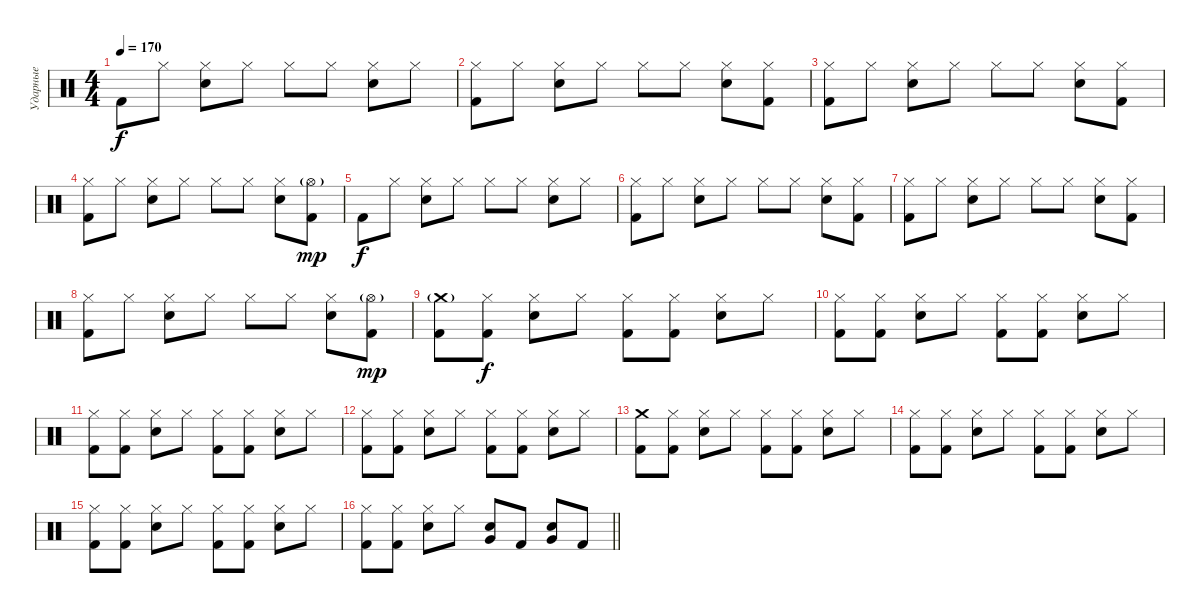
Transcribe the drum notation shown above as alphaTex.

\track ("Ударные" "Ударные") {instrument percussion}
\staff {score}
\articulation defaults
\ts (4 4)
\tempo 170
\clef neutral
\ks c "Kick (hit) 2".8{dy f} "Hi-Hat (closed)".8
("Hi-Hat (closed)" "Electric Snare (hit)").8 "Hi-Hat (closed)".8 "Hi-Hat (closed)".8 "Hi-Hat (closed)".8 ("Hi-Hat (closed)" "Electric Snare (hit)").8 "Hi-Hat (closed)".8 |
("Hi-Hat (closed)" "Kick (hit) 2").8 "Hi-Hat (closed)".8 ("Hi-Hat (closed)" "Electric Snare (hit)").8 "Hi-Hat (closed)".8 "Hi-Hat (closed)".8 "Hi-Hat (closed)".8 ("Hi-Hat (closed)" "Electric Snare (hit)").8 ("Hi-Hat (closed)" "Kick (hit) 2").8 |
("Hi-Hat (closed)" "Kick (hit) 2").8 "Hi-Hat (closed)".8 ("Hi-Hat (closed)" "Electric Snare (hit)").8 "Hi-Hat (closed)".8 "Hi-Hat (closed)".8 "Hi-Hat (closed)".8 ("Hi-Hat (closed)" "Electric Snare (hit)").8 ("Hi-Hat (closed)" "Kick (hit) 2").8 |
("Hi-Hat (closed)" "Kick (hit) 2").8 "Hi-Hat (closed)".8 ("Hi-Hat (closed)" "Electric Snare (hit)").8 "Hi-Hat (closed)".8 "Hi-Hat (closed)".8 "Hi-Hat (closed)".8 ("Hi-Hat (closed)" "Electric Snare (hit)").8 ("Hi-Hat (open)"{g} "Kick (hit) 2").8{dy mp} |
"Kick (hit) 2".8{dy f} "Hi-Hat (closed)".8 ("Hi-Hat (closed)" "Electric Snare (hit)").8 "Hi-Hat (closed)".8 "Hi-Hat (closed)".8 "Hi-Hat (closed)".8 ("Hi-Hat (closed)" "Electric Snare (hit)").8 "Hi-Hat (closed)".8 |
("Hi-Hat (closed)" "Kick (hit) 2").8 "Hi-Hat (closed)".8 ("Hi-Hat (closed)" "Electric Snare (hit)").8 "Hi-Hat (closed)".8 "Hi-Hat (closed)".8 "Hi-Hat (closed)".8 ("Hi-Hat (closed)" "Electric Snare (hit)").8 ("Hi-Hat (closed)" "Kick (hit) 2").8 |
("Hi-Hat (closed)" "Kick (hit) 2").8 "Hi-Hat (closed)".8 ("Hi-Hat (closed)" "Electric Snare (hit)").8 "Hi-Hat (closed)".8 "Hi-Hat (closed)".8 "Hi-Hat (closed)".8 ("Hi-Hat (closed)" "Electric Snare (hit)").8 ("Hi-Hat (closed)" "Kick (hit) 2").8 |
("Hi-Hat (closed)" "Kick (hit) 2").8 "Hi-Hat (closed)".8 ("Hi-Hat (closed)" "Electric Snare (hit)").8 "Hi-Hat (closed)".8 "Hi-Hat (closed)".8 "Hi-Hat (closed)".8 ("Hi-Hat (closed)" "Electric Snare (hit)").8 ("Hi-Hat (open)"{g} "Kick (hit) 2").8{dy mp} |
("Kick (hit) 2" "Crash medium (hit)"{g}).8 ("Hi-Hat (closed)" "Kick (hit) 2").8{dy f} ("Hi-Hat (closed)" "Electric Snare (hit)").8 "Hi-Hat (closed)".8 ("Hi-Hat (closed)" "Kick (hit) 2").8 ("Hi-Hat (closed)" "Kick (hit) 2").8 ("Hi-Hat (closed)" "Electric Snare (hit)").8 "Hi-Hat (closed)".8 |
("Hi-Hat (closed)" "Kick (hit) 2").8 ("Hi-Hat (closed)" "Kick (hit) 2").8 ("Hi-Hat (closed)" "Electric Snare (hit)").8 "Hi-Hat (closed)".8 ("Hi-Hat (closed)" "Kick (hit) 2").8 ("Hi-Hat (closed)" "Kick (hit) 2").8 ("Hi-Hat (closed)" "Electric Snare (hit)").8 "Hi-Hat (closed)".8 |
("Hi-Hat (closed)" "Kick (hit) 2").8 ("Hi-Hat (closed)" "Kick (hit) 2").8 ("Hi-Hat (closed)" "Electric Snare (hit)").8 "Hi-Hat (closed)".8 ("Hi-Hat (closed)" "Kick (hit) 2").8 ("Hi-Hat (closed)" "Kick (hit) 2").8 ("Hi-Hat (closed)" "Electric Snare (hit)").8 "Hi-Hat (closed)".8 |
("Hi-Hat (closed)" "Kick (hit) 2").8 ("Hi-Hat (closed)" "Kick (hit) 2").8 ("Hi-Hat (closed)" "Electric Snare (hit)").8 "Hi-Hat (closed)".8 ("Hi-Hat (closed)" "Kick (hit) 2").8 ("Hi-Hat (closed)" "Kick (hit) 2").8 ("Hi-Hat (closed)" "Electric Snare (hit)").8 "Hi-Hat (closed)".8 |
("Kick (hit) 2" "Crash medium (hit)").8 ("Hi-Hat (closed)" "Kick (hit) 2").8 ("Hi-Hat (closed)" "Electric Snare (hit)").8 "Hi-Hat (closed)".8 ("Hi-Hat (closed)" "Kick (hit) 2").8 ("Hi-Hat (closed)" "Kick (hit) 2").8 ("Hi-Hat (closed)" "Electric Snare (hit)").8 "Hi-Hat (closed)".8 |
("Hi-Hat (closed)" "Kick (hit) 2").8 ("Hi-Hat (closed)" "Kick (hit) 2").8 ("Hi-Hat (closed)" "Electric Snare (hit)").8 "Hi-Hat (closed)".8 ("Hi-Hat (closed)" "Kick (hit) 2").8 ("Hi-Hat (closed)" "Kick (hit) 2").8 ("Hi-Hat (closed)" "Electric Snare (hit)").8 "Hi-Hat (closed)".8 |
("Hi-Hat (closed)" "Kick (hit) 2").8 ("Hi-Hat (closed)" "Kick (hit) 2").8 ("Hi-Hat (closed)" "Electric Snare (hit)").8 "Hi-Hat (closed)".8 ("Hi-Hat (closed)" "Kick (hit) 2").8 ("Hi-Hat (closed)" "Kick (hit) 2").8 ("Hi-Hat (closed)" "Electric Snare (hit)").8 "Hi-Hat (closed)".8 |
\barLineRight lightlight
("Hi-Hat (closed)" "Kick (hit) 2").8 ("Hi-Hat (closed)" "Kick (hit) 2").8 ("Hi-Hat (closed)" "Electric Snare (hit)").8 "Hi-Hat (closed)".8 ("Electric Snare (hit)" "Very Low Tom (hit)").8 "Kick (hit) 2".8 ("Electric Snare (hit)" "Very Low Tom (hit)").8 "Kick (hit) 2".8
